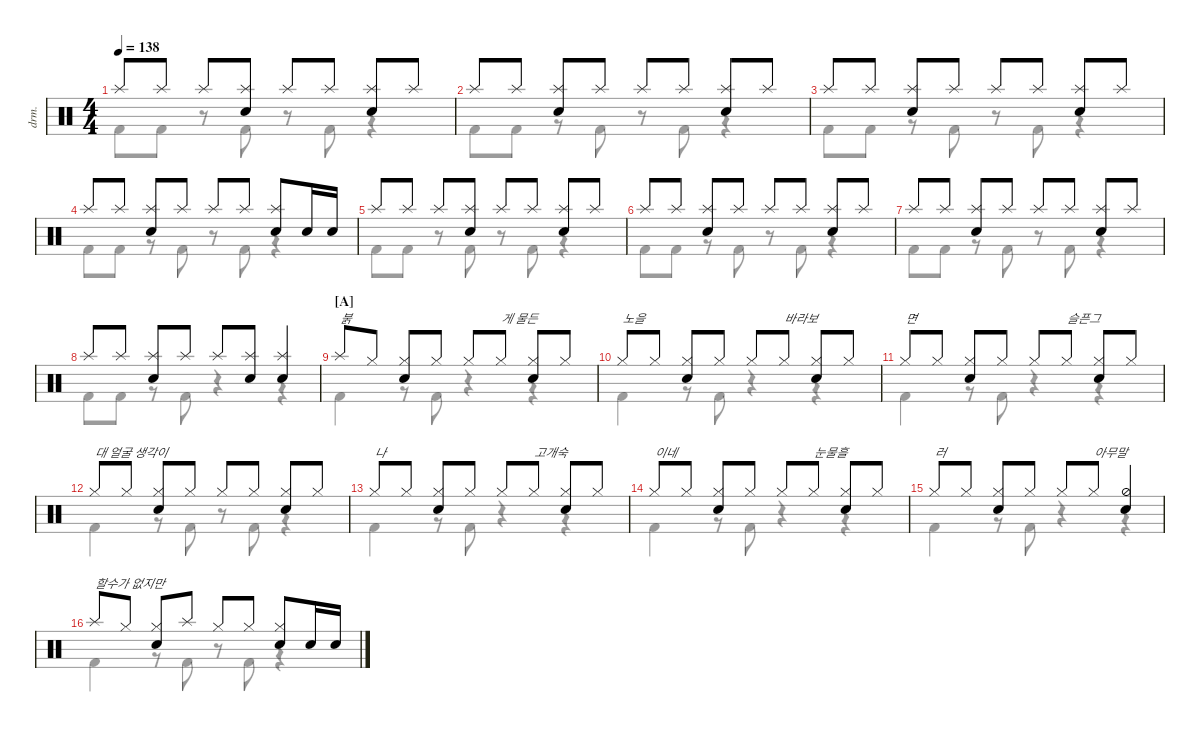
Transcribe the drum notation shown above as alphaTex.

\defaultSystemsLayout 4
\hideDynamics
\bracketExtendMode nobrackets
\track ("Drumkit" "drm.") {instrument percussion}
\staff {score}
\articulation defaults
\voice
\ts (4 4)
\tempo 138
\clef neutral
\ks c "Splash (hit)".8{dy mf} "Splash (hit)".8 "Splash (hit)".8
("Splash (hit)" "Snare (hit) 2").8 "Splash (hit)".8 "Splash (hit)".8 ("Splash (hit)" "Snare (hit) 2").8 "Splash (hit)".8 |
"Splash (hit)".8 "Splash (hit)".8 ("Splash (hit)" "Snare (hit) 2").8 "Splash (hit)".8 "Splash (hit)".8 "Splash (hit)".8 ("Splash (hit)" "Snare (hit) 2").8 "Splash (hit)".8 |
"Splash (hit)".8 "Splash (hit)".8 ("Splash (hit)" "Snare (hit) 2").8 "Splash (hit)".8 "Splash (hit)".8 "Splash (hit)".8 ("Splash (hit)" "Snare (hit) 2").8 "Splash (hit)".8 |
"Splash (hit)".8 "Splash (hit)".8 ("Splash (hit)" "Snare (hit) 2").8 "Splash (hit)".8 "Splash (hit)".8 "Splash (hit)".8 ("Splash (hit)" "Snare (hit) 2").8 "Snare (hit) 2".16 "Snare (hit) 2".16 |
"Splash (hit)".8 "Splash (hit)".8 "Splash (hit)".8 ("Splash (hit)" "Snare (hit) 2").8 "Splash (hit)".8 "Splash (hit)".8 ("Splash (hit)" "Snare (hit) 2").8 "Splash (hit)".8 |
"Splash (hit)".8 "Splash (hit)".8 ("Splash (hit)" "Snare (hit) 2").8 "Splash (hit)".8 "Splash (hit)".8 "Splash (hit)".8 ("Splash (hit)" "Snare (hit) 2").8 "Splash (hit)".8 |
"Splash (hit)".8 "Splash (hit)".8 ("Splash (hit)" "Snare (hit) 2").8 "Splash (hit)".8 "Splash (hit)".8 "Splash (hit)".8 ("Splash (hit)" "Snare (hit) 2").8 "Splash (hit)".8 |
"Splash (hit)".8 "Splash (hit)".8 ("Splash (hit)" "Snare (hit) 2").8 "Splash (hit)".8 "Splash (hit)".8 ("Splash (hit)" "Snare (hit) 2").8 ("Splash (hit)" "Snare (hit) 2").4 |
\section ("A" "")
"Splash (hit)".8{txt "붉"} "Hi-Hat (closed)".8 ("Hi-Hat (closed)" "Snare (hit) 2").8 "Hi-Hat (closed)".8 "Hi-Hat (closed)".8 "Hi-Hat (closed)".8{txt "게 물든"} ("Hi-Hat (closed)" "Snare (hit) 2").8 "Hi-Hat (closed)".8 |
"Hi-Hat (closed)".8{txt "노을"} "Hi-Hat (closed)".8 ("Hi-Hat (closed)" "Snare (hit) 2").8 "Hi-Hat (closed)".8 "Hi-Hat (closed)".8 "Hi-Hat (closed)".8{txt "바라보"} ("Hi-Hat (closed)" "Snare (hit) 2").8 "Hi-Hat (closed)".8 |
"Hi-Hat (closed)".8{txt "면"} "Hi-Hat (closed)".8 ("Hi-Hat (closed)" "Snare (hit) 2").8 "Hi-Hat (closed)".8 "Hi-Hat (closed)".8 "Hi-Hat (closed)".8{txt "슬픈그"} ("Hi-Hat (closed)" "Snare (hit) 2").8 "Hi-Hat (closed)".8 |
"Hi-Hat (closed)".8{txt "대 얼굴 생각이"} "Hi-Hat (closed)".8 ("Hi-Hat (closed)" "Snare (hit) 2").8 "Hi-Hat (closed)".8 "Hi-Hat (closed)".8 "Hi-Hat (closed)".8 ("Hi-Hat (closed)" "Snare (hit) 2").8 "Hi-Hat (closed)".8 |
"Hi-Hat (closed)".8{txt "나"} "Hi-Hat (closed)".8 ("Hi-Hat (closed)" "Snare (hit) 2").8 "Hi-Hat (closed)".8 "Hi-Hat (closed)".8 "Hi-Hat (closed)".8{txt "고개숙"} ("Hi-Hat (closed)" "Snare (hit) 2").8 "Hi-Hat (closed)".8 |
"Hi-Hat (closed)".8{txt "이네"} "Hi-Hat (closed)".8 ("Hi-Hat (closed)" "Snare (hit) 2").8 "Hi-Hat (closed)".8 "Hi-Hat (closed)".8 "Hi-Hat (closed)".8{txt "눈물흘"} ("Hi-Hat (closed)" "Snare (hit) 2").8 "Hi-Hat (closed)".8 |
"Hi-Hat (closed)".8{txt "러"} "Hi-Hat (closed)".8 ("Hi-Hat (closed)" "Snare (hit) 2").8 "Hi-Hat (closed)".8 "Hi-Hat (closed)".8 "Hi-Hat (closed)".8{txt "아무말"} ("Hi-Hat (half)" "Snare (hit) 2").4 |
"Splash (hit)".8{txt "할수가 없지만"} "Hi-Hat (closed)".8 ("Hi-Hat (closed)" "Snare (hit) 2").8 "Splash (hit)".8 "Hi-Hat (closed)".8 "Hi-Hat (closed)".8 ("Hi-Hat (closed)" "Snare (hit) 2").8 "Snare (hit) 2".16 "Snare (hit) 2".16
\voice
\clef neutral
\ottava regular
\simile none
\ks c
|
|
|
|
|
|
|
|
|
|
|
|
|
|
|
\voice
\clef neutral
\ottava regular
\simile none
\ks c "Kick (hit) 2".8{dy mf} "Kick (hit) 2".8
r.8 "Kick (hit) 2".8 r.8 "Kick (hit) 2".8 r.4 |
"Kick (hit) 2".8 "Kick (hit) 2".8 r.8 "Kick (hit) 2".8 r.8 "Kick (hit) 2".8 r.4 |
"Kick (hit) 2".8 "Kick (hit) 2".8 r.8 "Kick (hit) 2".8 r.8 "Kick (hit) 2".8 r.4 |
"Kick (hit) 2".8 "Kick (hit) 2".8 r.8 "Kick (hit) 2".8 r.8 "Kick (hit) 2".8 r.4 |
"Kick (hit) 2".8 "Kick (hit) 2".8 r.8 "Kick (hit) 2".8 r.8 "Kick (hit) 2".8 r.4 |
"Kick (hit) 2".8 "Kick (hit) 2".8 r.8 "Kick (hit) 2".8 r.8 "Kick (hit) 2".8 r.4 |
"Kick (hit) 2".8 "Kick (hit) 2".8 r.8 "Kick (hit) 2".8 r.8 "Kick (hit) 2".8 r.4 |
"Kick (hit) 2".8 "Kick (hit) 2".8 r.8 "Kick (hit) 2".8 r.4 r.4 |
"Kick (hit) 2".4 r.8 "Kick (hit) 2".8 r.4 r.4 |
"Kick (hit) 2".4 r.8 "Kick (hit) 2".8 r.4 r.4 |
"Kick (hit) 2".4 r.8 "Kick (hit) 2".8 r.4 r.4 |
"Kick (hit) 2".4 r.8 "Kick (hit) 2".8 r.8 "Kick (hit) 2".8 r.4 |
"Kick (hit) 2".4 r.8 "Kick (hit) 2".8 r.4 r.4 |
"Kick (hit) 2".4 r.8 "Kick (hit) 2".8 r.4 r.4 |
"Kick (hit) 2".4 r.8 "Kick (hit) 2".8 r.4 r.4 |
"Kick (hit) 2".4 r.8 "Kick (hit) 2".8 r.8 "Kick (hit) 2".8 r.4
